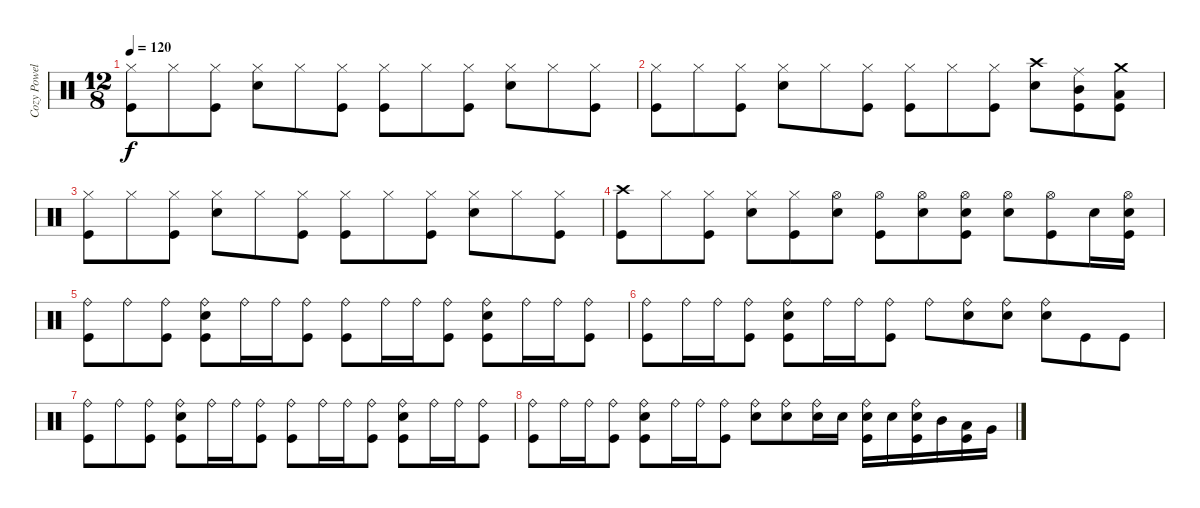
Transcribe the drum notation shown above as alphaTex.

\track ("Cozy Powell" "Cozy Powel") {instrument percussion}
\staff {score}
\articulation defaults
\ts (12 8)
\tempo 120
\clef neutral
\ks c
("Hi-Hat (closed)" "Kick (hit)").8{dy f} "Hi-Hat (closed)".8 ("Hi-Hat (closed)" "Kick (hit)").8 ("Hi-Hat (closed)" "Snare (hit) 2").8 "Hi-Hat (closed)".8 ("Hi-Hat (closed)" "Kick (hit)").8 ("Hi-Hat (closed)" "Kick (hit)").8 "Hi-Hat (closed)".8 ("Hi-Hat (closed)" "Kick (hit)").8 ("Hi-Hat (closed)" "Snare (hit) 2").8 "Hi-Hat (closed)".8 ("Hi-Hat (closed)" "Kick (hit)").8 |
("Hi-Hat (closed)" "Kick (hit)").8 "Hi-Hat (closed)".8 ("Hi-Hat (closed)" "Kick (hit)").8 ("Hi-Hat (closed)" "Snare (hit) 2").8 "Hi-Hat (closed)".8 ("Hi-Hat (closed)" "Kick (hit)").8 ("Hi-Hat (closed)" "Kick (hit)").8 "Hi-Hat (closed)".8 ("Hi-Hat (closed)" "Kick (hit)").8 ("Crash high (hit)" "Snare (hit) 2").8 ("Ride (middle)" "Mid Tom (hit)" "Kick (hit)").8 ("Crash medium (hit)" "Low Tom (hit)" "Kick (hit)").8 |
("Hi-Hat (closed)" "Kick (hit)").8 "Hi-Hat (closed)".8 ("Hi-Hat (closed)" "Kick (hit)").8 ("Hi-Hat (closed)" "Snare (hit) 2").8 "Hi-Hat (closed)".8 ("Hi-Hat (closed)" "Kick (hit)").8 ("Hi-Hat (closed)" "Kick (hit)").8 "Hi-Hat (closed)".8 ("Hi-Hat (closed)" "Kick (hit)").8 ("Hi-Hat (closed)" "Snare (hit) 2").8 "Hi-Hat (closed)".8 ("Hi-Hat (closed)" "Kick (hit)").8 |
("Crash high (hit)" "Kick (hit)").8 "Hi-Hat (closed)".8 ("Hi-Hat (closed)" "Kick (hit)").8 ("Hi-Hat (closed)" "Snare (hit) 2").8 ("Hi-Hat (closed)" "Kick (hit)").8 ("Hi-Hat (open)" "Snare (hit) 2").8 ("Hi-Hat (open)" "Kick (hit)").8 ("Hi-Hat (open)" "Snare (hit) 2").8 ("Hi-Hat (open)" "Snare (hit) 2" "Kick (hit)").8 ("Hi-Hat (open)" "Snare (hit) 2").8 ("Hi-Hat (open)" "Kick (hit)").8 "Snare (hit) 2".16 ("Hi-Hat (open)" "Snare (hit) 2" "Kick (hit)").16 |
("Ride (bell)" "Kick (hit)").8 "Ride (bell)".8 ("Ride (bell)" "Kick (hit)").8 ("Ride (bell)" "Snare (hit) 2" "Kick (hit)").8 "Ride (bell)".16 "Ride (bell)".16 ("Ride (bell)" "Kick (hit)").8 ("Ride (bell)" "Kick (hit)").8 "Ride (bell)".16 "Ride (bell)".16 ("Ride (bell)" "Kick (hit)").8 ("Ride (bell)" "Snare (hit) 2" "Kick (hit)").8 "Ride (bell)".16 "Ride (bell)".16 ("Ride (bell)" "Kick (hit)").8 |
("Ride (bell)" "Kick (hit)").8 "Ride (bell)".16 "Ride (bell)".16 ("Ride (bell)" "Kick (hit)").8 ("Ride (bell)" "Snare (hit) 2" "Kick (hit)").8 "Ride (bell)".16 "Ride (bell)".16 ("Ride (bell)" "Kick (hit)").8 "Ride (bell)".8 ("Ride (bell)" "Snare (hit) 2").8 ("Ride (bell)" "Snare (hit) 2").8 ("Ride (bell)" "Snare (hit) 2").8 "Kick (hit)".8 "Kick (hit)".8 |
("Ride (bell)" "Kick (hit)").8 "Ride (bell)".8 ("Ride (bell)" "Kick (hit)").8 ("Ride (bell)" "Snare (hit) 2" "Kick (hit)").8 "Ride (bell)".16 "Ride (bell)".16 ("Ride (bell)" "Kick (hit)").8 ("Ride (bell)" "Kick (hit)").8 "Ride (bell)".16 "Ride (bell)".16 ("Ride (bell)" "Kick (hit)").8 ("Ride (bell)" "Snare (hit) 2" "Kick (hit)").8 "Ride (bell)".16 "Ride (bell)".16 ("Ride (bell)" "Kick (hit)").8 |
("Ride (bell)" "Kick (hit)").8 "Ride (bell)".16 "Ride (bell)".16 ("Ride (bell)" "Kick (hit)").8 ("Ride (bell)" "Snare (hit) 2" "Kick (hit)").8 "Ride (bell)".16 "Ride (bell)".16 ("Ride (bell)" "Kick (hit)").8 ("Ride (bell)" "Snare (hit) 2").8 ("Ride (bell)" "Snare (hit) 2").8 ("Ride (bell)" "Snare (hit) 2").16 "Snare (hit) 2".16 ("Ride (bell)" "Snare (hit) 2" "Kick (hit)").16 "Snare (hit) 2".16 ("Ride (bell)" "Snare (hit) 2" "Kick (hit)").16 "Mid Tom (hit)".16 ("Low Tom (hit)" "Kick (hit)").16 "Very Low Tom (hit)".16
